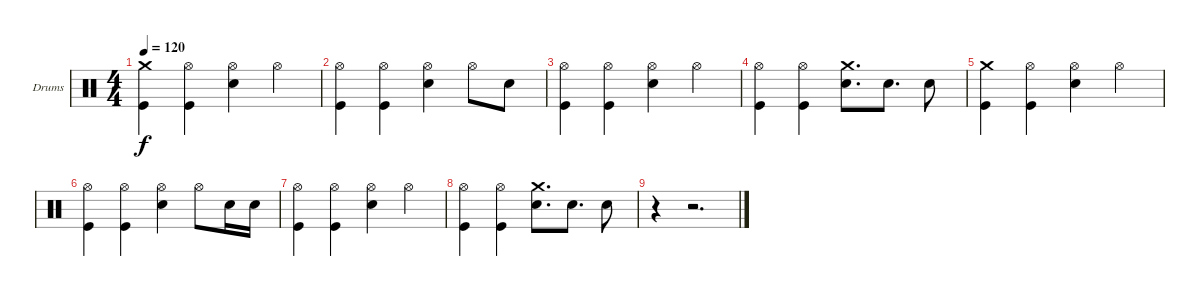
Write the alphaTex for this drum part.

\bracketExtendMode groupsimilarinstruments
\firstSystemTrackNameOrientation horizontal
\otherSystemsTrackNameOrientation horizontal
\track ("Drumkit" "Drums") {instrument percussion}
\staff {score}
\articulation defaults
\ts (4 4)
\tempo 120
\clef neutral
\ks c
("Crash medium (hit)" "Kick (hit)").4{dy f} ("Hi-Hat (open)" "Kick (hit)").4 ("Hi-Hat (open)" "Snare (hit) 2").4 "Hi-Hat (open)".4 |
("Hi-Hat (open)" "Kick (hit)").4 ("Hi-Hat (open)" "Kick (hit)").4 ("Hi-Hat (open)" "Snare (hit) 2").4 "Hi-Hat (open)".8 "Snare (hit) 2".8 |
("Hi-Hat (open)" "Kick (hit)").4 ("Hi-Hat (open)" "Kick (hit)").4 ("Hi-Hat (open)" "Snare (hit) 2").4 "Hi-Hat (open)".4 |
("Hi-Hat (open)" "Kick (hit)").4 ("Hi-Hat (open)" "Kick (hit)").4 ("Crash medium (hit)" "Snare (hit) 2").8{d} "Snare (hit) 2".8{d} "Snare (hit) 2".8 |
("Crash medium (hit)" "Kick (hit)").4 ("Hi-Hat (open)" "Kick (hit)").4 ("Hi-Hat (open)" "Snare (hit) 2").4 "Hi-Hat (open)".4 |
("Hi-Hat (open)" "Kick (hit)").4 ("Hi-Hat (open)" "Kick (hit)").4 ("Hi-Hat (open)" "Snare (hit) 2").4 "Hi-Hat (open)".8 "Snare (hit) 2".16 "Snare (hit) 2".16 |
("Hi-Hat (open)" "Kick (hit)").4 ("Hi-Hat (open)" "Kick (hit)").4 ("Hi-Hat (open)" "Snare (hit) 2").4 "Hi-Hat (open)".4 |
("Hi-Hat (open)" "Kick (hit)").4 ("Hi-Hat (open)" "Kick (hit)").4 ("Crash medium (hit)" "Snare (hit) 2").8{d} "Snare (hit) 2".8{d} "Snare (hit) 2".8 |
r.4 r.2{d}
